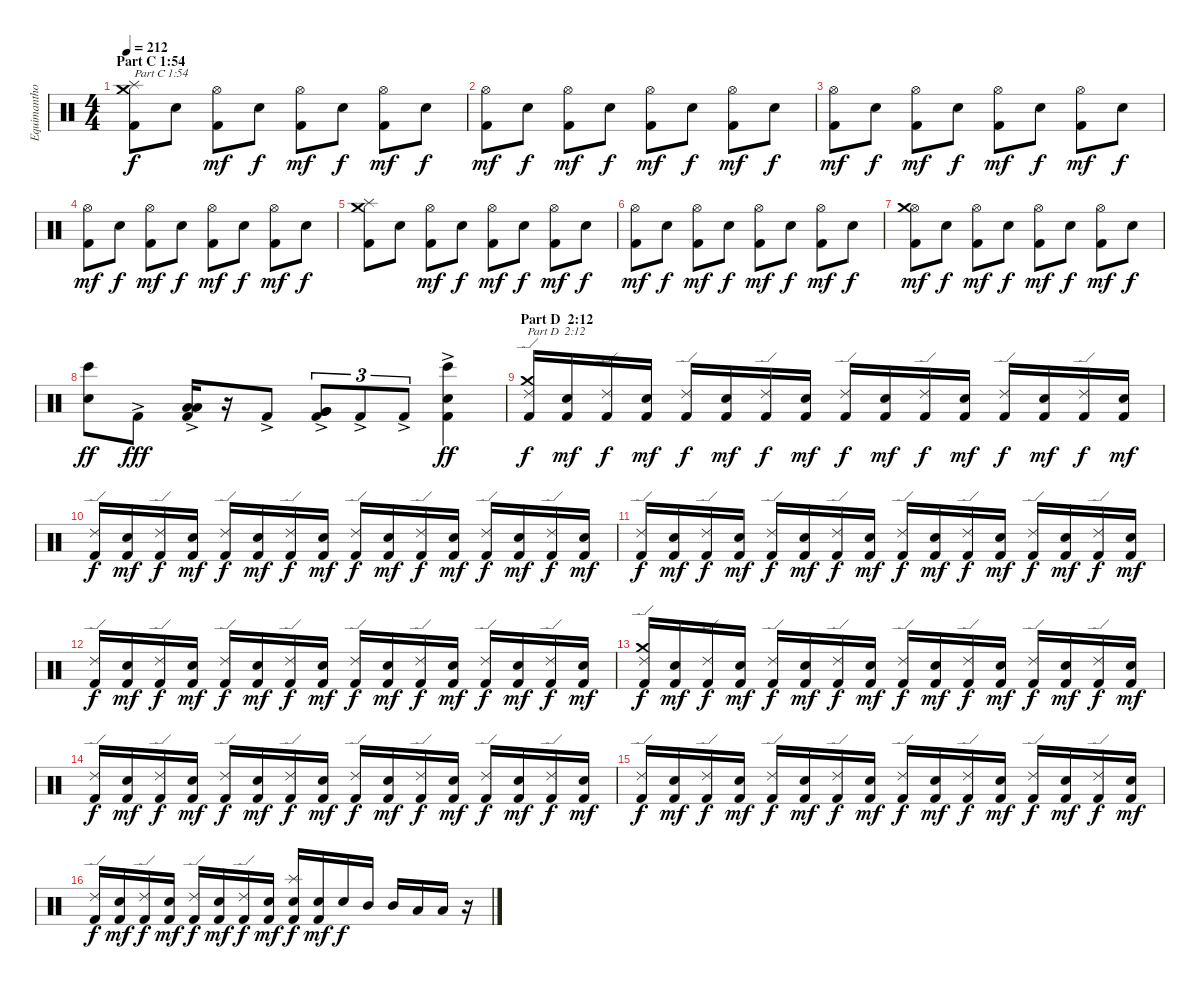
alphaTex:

\track ("Equimanthorn" "Equimantho") {instrument percussion}
\staff {score}
\articulation defaults
\ts (4 4)
\section ("" "Part C 1:54")
\tempo 212
\clef neutral
\ks c
("Kick (hit) 2" "Splash (hit)" "Crash medium (hit)").8{txt "Part C 1:54" dy f} "Electric Snare (hit)".8 ("Kick (hit) 2" "Hi-Hat (open)").8{dy mf} "Electric Snare (hit)".8{dy f} ("Kick (hit) 2" "Hi-Hat (open)").8{dy mf} "Electric Snare (hit)".8{dy f} ("Kick (hit) 2" "Hi-Hat (open)").8{dy mf} "Electric Snare (hit)".8{dy f} |
("Kick (hit) 2" "Hi-Hat (open)").8{dy mf} "Electric Snare (hit)".8{dy f} ("Kick (hit) 2" "Hi-Hat (open)").8{dy mf} "Electric Snare (hit)".8{dy f} ("Kick (hit) 2" "Hi-Hat (open)").8{dy mf} "Electric Snare (hit)".8{dy f} ("Kick (hit) 2" "Hi-Hat (open)").8{dy mf} "Electric Snare (hit)".8{dy f} |
("Kick (hit) 2" "Hi-Hat (open)").8{dy mf} "Electric Snare (hit)".8{dy f} ("Kick (hit) 2" "Hi-Hat (open)").8{dy mf} "Electric Snare (hit)".8{dy f} ("Kick (hit) 2" "Hi-Hat (open)").8{dy mf} "Electric Snare (hit)".8{dy f} ("Kick (hit) 2" "Hi-Hat (open)").8{dy mf} "Electric Snare (hit)".8{dy f} |
("Kick (hit) 2" "Hi-Hat (open)").8{dy mf} "Electric Snare (hit)".8{dy f} ("Kick (hit) 2" "Hi-Hat (open)").8{dy mf} "Electric Snare (hit)".8{dy f} ("Kick (hit) 2" "Hi-Hat (open)").8{dy mf} "Electric Snare (hit)".8{dy f} ("Kick (hit) 2" "Hi-Hat (open)").8{dy mf} "Electric Snare (hit)".8{dy f} |
("Kick (hit) 2" "Splash (hit)" "Crash medium (hit)").8 "Electric Snare (hit)".8 ("Kick (hit) 2" "Hi-Hat (open)").8{dy mf} "Electric Snare (hit)".8{dy f} ("Kick (hit) 2" "Hi-Hat (open)").8{dy mf} "Electric Snare (hit)".8{dy f} ("Kick (hit) 2" "Hi-Hat (open)").8{dy mf} "Electric Snare (hit)".8{dy f} |
("Kick (hit) 2" "Hi-Hat (open)").8{dy mf} "Electric Snare (hit)".8{dy f} ("Kick (hit) 2" "Hi-Hat (open)").8{dy mf} "Electric Snare (hit)".8{dy f} ("Kick (hit) 2" "Hi-Hat (open)").8{dy mf} "Electric Snare (hit)".8{dy f} ("Kick (hit) 2" "Hi-Hat (open)").8{dy mf} "Electric Snare (hit)".8{dy f} |
("Kick (hit) 2" "Hi-Hat (open)" "Crash medium (hit)").8{dy mf} "Electric Snare (hit)".8{dy f} ("Kick (hit) 2" "Hi-Hat (open)").8{dy mf} "Electric Snare (hit)".8{dy f} ("Kick (hit) 2" "Hi-Hat (open)").8{dy mf} "Electric Snare (hit)".8{dy f} ("Kick (hit) 2" "Hi-Hat (open)").8{dy mf} "Electric Snare (hit)".8{dy f} |
("Bongo High (hit)" "Electric Snare (hit)").8{dy ff} "Kick (hit) 2"{ac}.8{dy fff} ("Kick (hit) 2" "Low Tom (hit)"{ac} "Low Tom (hit)"{ac}).16 r.16 "Kick (hit) 2"{ac}.8 ("Kick (hit) 2" "Very Low Tom (hit)"{ac} "Very Low Tom (hit)"{ac}).8{tu (3 2)} "Kick (hit) 2"{ac}.8{tu (3 2)} "Kick (hit) 2"{ac}.8{tu (3 2)} ("Kick (hit) 2"{ac} "Bongo High (hit)" "Electric Snare (hit)").4{dy ff} |
\section ("" "Part D  2:12")
("Kick (hit) 2" "Ride (edge) 2" "Crash medium (hit)").16{txt "Part D  2:12" dy f} ("Kick (hit) 2" "Electric Snare (hit)").16{dy mf} ("Kick (hit) 2" "Ride (edge) 2").16{dy f} ("Kick (hit) 2" "Electric Snare (hit)").16{dy mf} ("Kick (hit) 2" "Ride (edge) 2").16{dy f} ("Kick (hit) 2" "Electric Snare (hit)").16{dy mf} ("Kick (hit) 2" "Ride (edge) 2").16{dy f} ("Kick (hit) 2" "Electric Snare (hit)").16{dy mf} ("Kick (hit) 2" "Ride (edge) 2").16{dy f} ("Kick (hit) 2" "Electric Snare (hit)").16{dy mf} ("Kick (hit) 2" "Ride (edge) 2").16{dy f} ("Kick (hit) 2" "Electric Snare (hit)").16{dy mf} ("Kick (hit) 2" "Ride (edge) 2").16{dy f} ("Kick (hit) 2" "Electric Snare (hit)").16{dy mf} ("Kick (hit) 2" "Ride (edge) 2").16{dy f} ("Kick (hit) 2" "Electric Snare (hit)").16{dy mf} |
("Kick (hit) 2" "Ride (edge) 2").16{dy f} ("Kick (hit) 2" "Electric Snare (hit)").16{dy mf} ("Kick (hit) 2" "Ride (edge) 2").16{dy f} ("Kick (hit) 2" "Electric Snare (hit)").16{dy mf} ("Kick (hit) 2" "Ride (edge) 2").16{dy f} ("Kick (hit) 2" "Electric Snare (hit)").16{dy mf} ("Kick (hit) 2" "Ride (edge) 2").16{dy f} ("Kick (hit) 2" "Electric Snare (hit)").16{dy mf} ("Kick (hit) 2" "Ride (edge) 2").16{dy f} ("Kick (hit) 2" "Electric Snare (hit)").16{dy mf} ("Kick (hit) 2" "Ride (edge) 2").16{dy f} ("Kick (hit) 2" "Electric Snare (hit)").16{dy mf} ("Kick (hit) 2" "Ride (edge) 2").16{dy f} ("Kick (hit) 2" "Electric Snare (hit)").16{dy mf} ("Kick (hit) 2" "Ride (edge) 2").16{dy f} ("Kick (hit) 2" "Electric Snare (hit)").16{dy mf} |
("Kick (hit) 2" "Ride (edge) 2").16{dy f} ("Kick (hit) 2" "Electric Snare (hit)").16{dy mf} ("Kick (hit) 2" "Ride (edge) 2").16{dy f} ("Kick (hit) 2" "Electric Snare (hit)").16{dy mf} ("Kick (hit) 2" "Ride (edge) 2").16{dy f} ("Kick (hit) 2" "Electric Snare (hit)").16{dy mf} ("Kick (hit) 2" "Ride (edge) 2").16{dy f} ("Kick (hit) 2" "Electric Snare (hit)").16{dy mf} ("Kick (hit) 2" "Ride (edge) 2").16{dy f} ("Kick (hit) 2" "Electric Snare (hit)").16{dy mf} ("Kick (hit) 2" "Ride (edge) 2").16{dy f} ("Kick (hit) 2" "Electric Snare (hit)").16{dy mf} ("Kick (hit) 2" "Ride (edge) 2").16{dy f} ("Kick (hit) 2" "Electric Snare (hit)").16{dy mf} ("Kick (hit) 2" "Ride (edge) 2").16{dy f} ("Kick (hit) 2" "Electric Snare (hit)").16{dy mf} |
("Kick (hit) 2" "Ride (edge) 2").16{dy f} ("Kick (hit) 2" "Electric Snare (hit)").16{dy mf} ("Kick (hit) 2" "Ride (edge) 2").16{dy f} ("Kick (hit) 2" "Electric Snare (hit)").16{dy mf} ("Kick (hit) 2" "Ride (edge) 2").16{dy f} ("Kick (hit) 2" "Electric Snare (hit)").16{dy mf} ("Kick (hit) 2" "Ride (edge) 2").16{dy f} ("Kick (hit) 2" "Electric Snare (hit)").16{dy mf} ("Kick (hit) 2" "Ride (edge) 2").16{dy f} ("Kick (hit) 2" "Electric Snare (hit)").16{dy mf} ("Kick (hit) 2" "Ride (edge) 2").16{dy f} ("Kick (hit) 2" "Electric Snare (hit)").16{dy mf} ("Kick (hit) 2" "Ride (edge) 2").16{dy f} ("Kick (hit) 2" "Electric Snare (hit)").16{dy mf} ("Kick (hit) 2" "Ride (edge) 2").16{dy f} ("Kick (hit) 2" "Electric Snare (hit)").16{dy mf} |
("Kick (hit) 2" "Ride (edge) 2" "Crash medium (hit)").16{dy f} ("Kick (hit) 2" "Electric Snare (hit)").16{dy mf} ("Kick (hit) 2" "Ride (edge) 2").16{dy f} ("Kick (hit) 2" "Electric Snare (hit)").16{dy mf} ("Kick (hit) 2" "Ride (edge) 2").16{dy f} ("Kick (hit) 2" "Electric Snare (hit)").16{dy mf} ("Kick (hit) 2" "Ride (edge) 2").16{dy f} ("Kick (hit) 2" "Electric Snare (hit)").16{dy mf} ("Kick (hit) 2" "Ride (edge) 2").16{dy f} ("Kick (hit) 2" "Electric Snare (hit)").16{dy mf} ("Kick (hit) 2" "Ride (edge) 2").16{dy f} ("Kick (hit) 2" "Electric Snare (hit)").16{dy mf} ("Kick (hit) 2" "Ride (edge) 2").16{dy f} ("Kick (hit) 2" "Electric Snare (hit)").16{dy mf} ("Kick (hit) 2" "Ride (edge) 2").16{dy f} ("Kick (hit) 2" "Electric Snare (hit)").16{dy mf} |
("Kick (hit) 2" "Ride (edge) 2").16{dy f} ("Kick (hit) 2" "Electric Snare (hit)").16{dy mf} ("Kick (hit) 2" "Ride (edge) 2").16{dy f} ("Kick (hit) 2" "Electric Snare (hit)").16{dy mf} ("Kick (hit) 2" "Ride (edge) 2").16{dy f} ("Kick (hit) 2" "Electric Snare (hit)").16{dy mf} ("Kick (hit) 2" "Ride (edge) 2").16{dy f} ("Kick (hit) 2" "Electric Snare (hit)").16{dy mf} ("Kick (hit) 2" "Ride (edge) 2").16{dy f} ("Kick (hit) 2" "Electric Snare (hit)").16{dy mf} ("Kick (hit) 2" "Ride (edge) 2").16{dy f} ("Kick (hit) 2" "Electric Snare (hit)").16{dy mf} ("Kick (hit) 2" "Ride (edge) 2").16{dy f} ("Kick (hit) 2" "Electric Snare (hit)").16{dy mf} ("Kick (hit) 2" "Ride (edge) 2").16{dy f} ("Kick (hit) 2" "Electric Snare (hit)").16{dy mf} |
("Kick (hit) 2" "Ride (edge) 2").16{dy f} ("Kick (hit) 2" "Electric Snare (hit)").16{dy mf} ("Kick (hit) 2" "Ride (edge) 2").16{dy f} ("Kick (hit) 2" "Electric Snare (hit)").16{dy mf} ("Kick (hit) 2" "Ride (edge) 2").16{dy f} ("Kick (hit) 2" "Electric Snare (hit)").16{dy mf} ("Kick (hit) 2" "Ride (edge) 2").16{dy f} ("Kick (hit) 2" "Electric Snare (hit)").16{dy mf} ("Kick (hit) 2" "Ride (edge) 2").16{dy f} ("Kick (hit) 2" "Electric Snare (hit)").16{dy mf} ("Kick (hit) 2" "Ride (edge) 2").16{dy f} ("Kick (hit) 2" "Electric Snare (hit)").16{dy mf} ("Kick (hit) 2" "Ride (edge) 2").16{dy f} ("Kick (hit) 2" "Electric Snare (hit)").16{dy mf} ("Kick (hit) 2" "Ride (edge) 2").16{dy f} ("Kick (hit) 2" "Electric Snare (hit)").16{dy mf} |
("Kick (hit) 2" "Ride (edge) 2").16{dy f} ("Kick (hit) 2" "Electric Snare (hit)").16{dy mf} ("Kick (hit) 2" "Ride (edge) 2").16{dy f} ("Kick (hit) 2" "Electric Snare (hit)").16{dy mf} ("Kick (hit) 2" "Ride (edge) 2").16{dy f} ("Kick (hit) 2" "Electric Snare (hit)").16{dy mf} ("Kick (hit) 2" "Ride (edge) 2").16{dy f} ("Kick (hit) 2" "Electric Snare (hit)").16{dy mf} ("Kick (hit) 2" "Electric Snare (hit)" "Splash (hit)").16{dy f} ("Kick (hit) 2" "Electric Snare (hit)").16{dy mf} "Electric Snare (hit)".16{dy f} "Mid Tom (hit)".16 "Mid Tom (hit)".16 "Low Tom (hit)".16 "Low Tom (hit)".16 r.16
